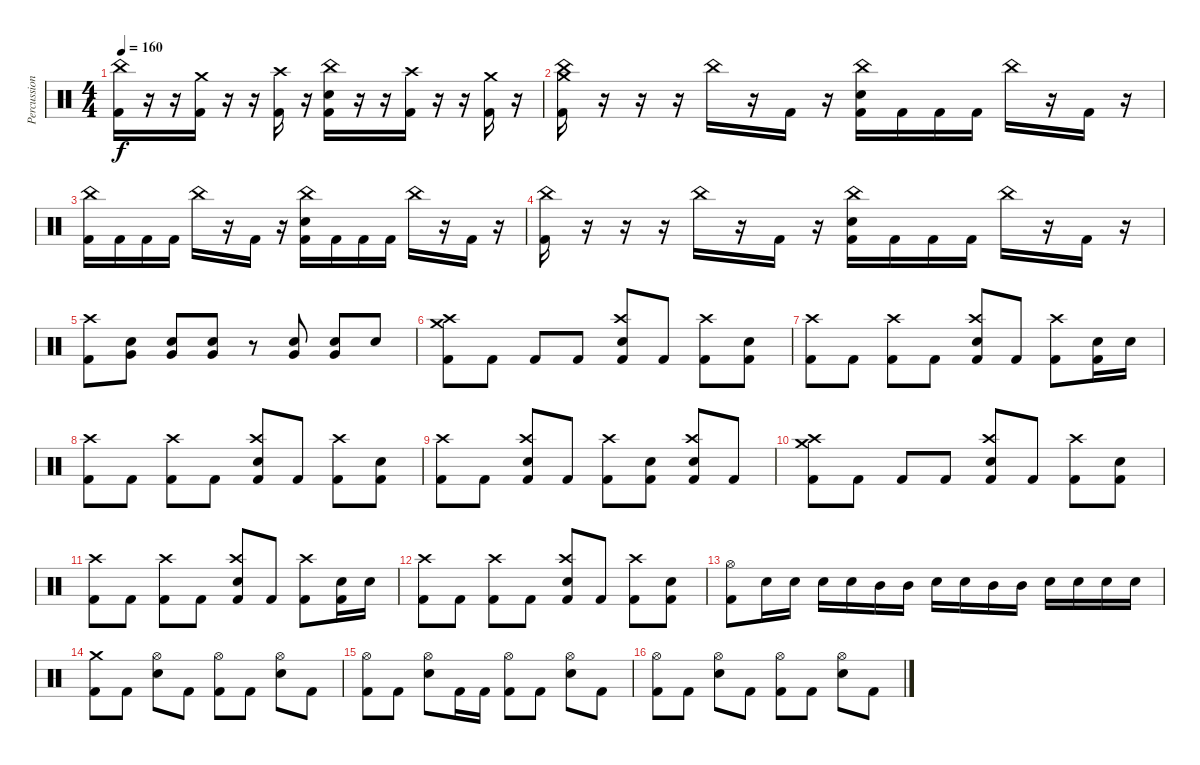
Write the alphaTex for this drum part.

\track ("Percussion" "Percussion") {instrument percussion}
\staff {score}
\articulation defaults
\ts (4 4)
\tempo 160
\clef neutral
\ks c
("China (hit)" "Kick (hit) 2").16{dy f} r.16 r.16 ("Crash medium (hit)" "Kick (hit) 2").16 r.16 r.16 ("Crash high (hit)" "Kick (hit) 2").16 r.16 ("China (hit)" "Electric Snare (hit)" "Kick (hit) 2").16 r.16 r.16 ("Crash high (hit)" "Kick (hit) 2").16 r.16 r.16 ("Crash medium (hit)" "Kick (hit) 2").16 r.16 |
("Crash medium (hit)" "China (hit)" "Kick (hit) 2").16 r.16 r.16 r.16 "China (hit)".16 r.16 "Kick (hit) 2".16 r.16 ("China (hit)" "Electric Snare (hit)" "Kick (hit) 2").16 "Kick (hit) 2".16 "Kick (hit) 2".16 "Kick (hit) 2".16 "China (hit)".16 r.16 "Kick (hit) 2".16 r.16 |
("China (hit)" "Kick (hit) 2").16 "Kick (hit) 2".16 "Kick (hit) 2".16 "Kick (hit) 2".16 "China (hit)".16 r.16 "Kick (hit) 2".16 r.16 ("China (hit)" "Electric Snare (hit)" "Kick (hit) 2").16 "Kick (hit) 2".16 "Kick (hit) 2".16 "Kick (hit) 2".16 "China (hit)".16 r.16 "Kick (hit) 2".16 r.16 |
("China (hit)" "Kick (hit) 2").16 r.16 r.16 r.16 "China (hit)".16 r.16 "Kick (hit) 2".16 r.16 ("China (hit)" "Electric Snare (hit)" "Kick (hit) 2").16 "Kick (hit) 2".16 "Kick (hit) 2".16 "Kick (hit) 2".16 "China (hit)".16 r.16 "Kick (hit) 2".16 r.16 |
("Crash high (hit)" "Kick (hit) 2").8 ("Electric Snare (hit)" "Very Low Tom (hit)").8 ("Electric Snare (hit)" "Very Low Tom (hit)").8 ("Electric Snare (hit)" "Very Low Tom (hit)").8 r.8 ("Electric Snare (hit)" "Very Low Tom (hit)").8 ("Electric Snare (hit)" "Very Low Tom (hit)").8 "Electric Snare (hit)".8 |
("Crash medium (hit)" "Crash high (hit)" "Kick (hit) 2").8 "Kick (hit) 2".8 "Kick (hit) 2".8 "Kick (hit) 2".8 ("Crash high (hit)" "Electric Snare (hit)" "Kick (hit) 2").8 "Kick (hit) 2".8 ("Crash high (hit)" "Kick (hit) 2").8 ("Electric Snare (hit)" "Kick (hit) 2").8 |
("Crash high (hit)" "Kick (hit) 2").8 "Kick (hit) 2".8 ("Crash high (hit)" "Kick (hit) 2").8 "Kick (hit) 2".8 ("Crash high (hit)" "Electric Snare (hit)" "Kick (hit) 2").8 "Kick (hit) 2".8 ("Crash high (hit)" "Kick (hit) 2").8 ("Electric Snare (hit)" "Kick (hit) 2").16 "Electric Snare (hit)".16 |
("Crash high (hit)" "Kick (hit) 2").8 "Kick (hit) 2".8 ("Crash high (hit)" "Kick (hit) 2").8 "Kick (hit) 2".8 ("Crash high (hit)" "Electric Snare (hit)" "Kick (hit) 2").8 "Kick (hit) 2".8 ("Crash high (hit)" "Kick (hit) 2").8 ("Electric Snare (hit)" "Kick (hit) 2").8 |
("Crash high (hit)" "Kick (hit) 2").8 "Kick (hit) 2".8 ("Crash high (hit)" "Electric Snare (hit)" "Kick (hit) 2").8 "Kick (hit) 2".8 ("Crash high (hit)" "Kick (hit) 2").8 ("Electric Snare (hit)" "Kick (hit) 2").8 ("Crash high (hit)" "Electric Snare (hit)" "Kick (hit) 2").8 "Kick (hit) 2".8 |
("Crash medium (hit)" "Crash high (hit)" "Kick (hit) 2").8 "Kick (hit) 2".8 "Kick (hit) 2".8 "Kick (hit) 2".8 ("Crash high (hit)" "Electric Snare (hit)" "Kick (hit) 2").8 "Kick (hit) 2".8 ("Crash high (hit)" "Kick (hit) 2").8 ("Electric Snare (hit)" "Kick (hit) 2").8 |
("Crash high (hit)" "Kick (hit) 2").8 "Kick (hit) 2".8 ("Crash high (hit)" "Kick (hit) 2").8 "Kick (hit) 2".8 ("Crash high (hit)" "Electric Snare (hit)" "Kick (hit) 2").8 "Kick (hit) 2".8 ("Crash high (hit)" "Kick (hit) 2").8 ("Electric Snare (hit)" "Kick (hit) 2").16 "Electric Snare (hit)".16 |
("Crash high (hit)" "Kick (hit) 2").8 "Kick (hit) 2".8 ("Crash high (hit)" "Kick (hit) 2").8 "Kick (hit) 2".8 ("Crash high (hit)" "Electric Snare (hit)" "Kick (hit) 2").8 "Kick (hit) 2".8 ("Crash high (hit)" "Kick (hit) 2").8 ("Electric Snare (hit)" "Kick (hit) 2").8 |
("Hi-Hat (open)" "Kick (hit) 2").8 "Electric Snare (hit)".16 "Electric Snare (hit)".16 "Electric Snare (hit)".16 "Electric Snare (hit)".16 "Mid Tom (hit)".16 "Mid Tom (hit)".16 "Electric Snare (hit)".16 "Electric Snare (hit)".16 "Mid Tom (hit)".16 "Mid Tom (hit)".16 "Electric Snare (hit)".16 "Electric Snare (hit)".16 "Electric Snare (hit)".16 "Electric Snare (hit)".16 |
("Crash medium (hit)" "Kick (hit) 2").8 "Kick (hit) 2".8 ("Hi-Hat (open)" "Electric Snare (hit)").8 "Kick (hit) 2".8 ("Hi-Hat (open)" "Kick (hit) 2").8 "Kick (hit) 2".8 ("Hi-Hat (open)" "Electric Snare (hit)").8 "Kick (hit) 2".8 |
("Hi-Hat (open)" "Kick (hit) 2").8 "Kick (hit) 2".8 ("Hi-Hat (open)" "Electric Snare (hit)").8 "Kick (hit) 2".16 "Kick (hit) 2".16 ("Hi-Hat (open)" "Kick (hit) 2").8 "Kick (hit) 2".8 ("Hi-Hat (open)" "Electric Snare (hit)").8 "Kick (hit) 2".8 |
("Hi-Hat (open)" "Kick (hit) 2").8 "Kick (hit) 2".8 ("Hi-Hat (open)" "Electric Snare (hit)").8 "Kick (hit) 2".8 ("Hi-Hat (open)" "Kick (hit) 2").8 "Kick (hit) 2".8 ("Hi-Hat (open)" "Electric Snare (hit)").8 "Kick (hit) 2".8
